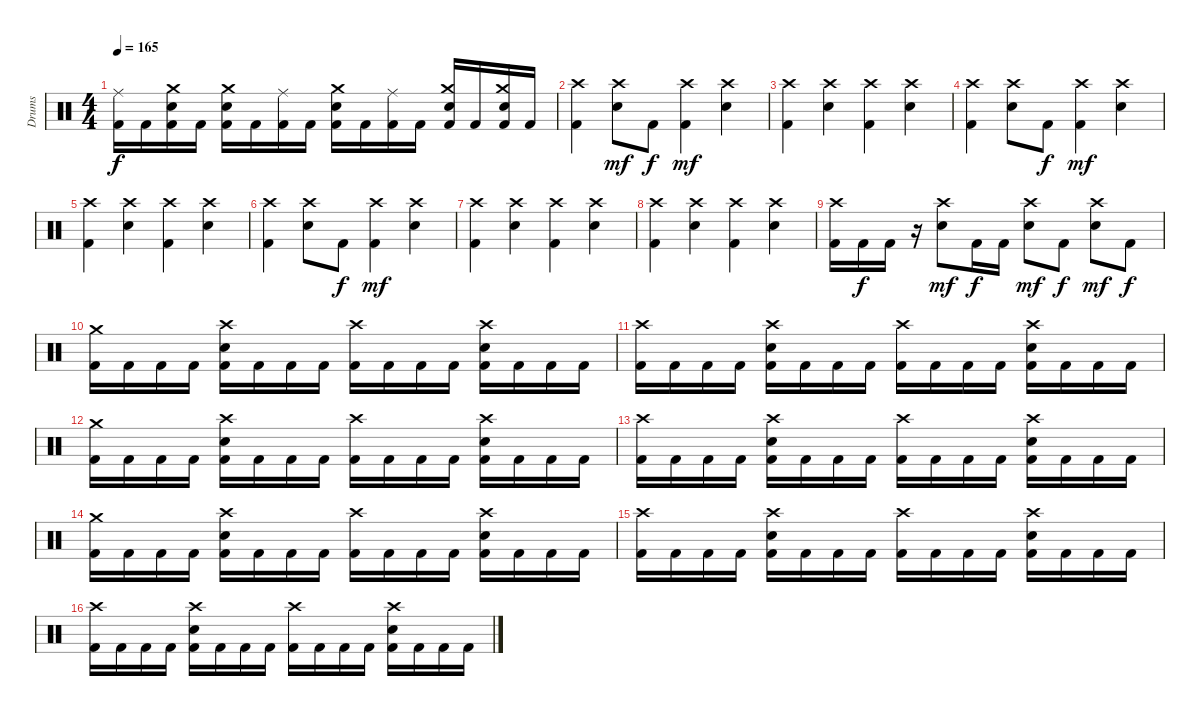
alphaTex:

\track ("Drums" "Drums") {instrument percussion}
\staff {score}
\articulation defaults
\ts (4 4)
\tempo 165
\clef neutral
\ks c
("Ride (middle)" "Kick (hit) 2").16{dy f} "Kick (hit) 2".16 ("Crash medium (hit)" "Electric Snare (hit)" "Kick (hit) 2").16 "Kick (hit) 2".16 ("Crash medium (hit)" "Electric Snare (hit)" "Kick (hit) 2").16 "Kick (hit) 2".16 ("Ride (middle)" "Kick (hit) 2").16 "Kick (hit) 2".16 ("Crash medium (hit)" "Electric Snare (hit)" "Kick (hit) 2").16 "Kick (hit) 2".16 ("Ride (middle)" "Kick (hit) 2").16 "Kick (hit) 2".16 ("Crash medium (hit)" "Electric Snare (hit)" "Kick (hit) 2").16 "Kick (hit) 2".16 ("Crash medium (hit)" "Electric Snare (hit)" "Kick (hit) 2").16 "Kick (hit) 2".16 |
("Crash high (hit)" "Kick (hit) 2").4 ("Crash high (hit)" "Electric Snare (hit)").8{dy mf} "Kick (hit) 2".8{dy f} ("Crash high (hit)" "Kick (hit) 2").4{dy mf} ("Crash high (hit)" "Electric Snare (hit)").4 |
("Crash high (hit)" "Kick (hit) 2").4 ("Crash high (hit)" "Electric Snare (hit)").4 ("Crash high (hit)" "Kick (hit) 2").4 ("Crash high (hit)" "Electric Snare (hit)").4 |
("Crash high (hit)" "Kick (hit) 2").4 ("Crash high (hit)" "Electric Snare (hit)").8 "Kick (hit) 2".8{dy f} ("Crash high (hit)" "Kick (hit) 2").4{dy mf} ("Crash high (hit)" "Electric Snare (hit)").4 |
("Crash high (hit)" "Kick (hit) 2").4 ("Crash high (hit)" "Electric Snare (hit)").4 ("Crash high (hit)" "Kick (hit) 2").4 ("Crash high (hit)" "Electric Snare (hit)").4 |
("Crash high (hit)" "Kick (hit) 2").4 ("Crash high (hit)" "Electric Snare (hit)").8 "Kick (hit) 2".8{dy f} ("Crash high (hit)" "Kick (hit) 2").4{dy mf} ("Crash high (hit)" "Electric Snare (hit)").4 |
("Crash high (hit)" "Kick (hit) 2").4 ("Crash high (hit)" "Electric Snare (hit)").4 ("Crash high (hit)" "Kick (hit) 2").4 ("Crash high (hit)" "Electric Snare (hit)").4 |
("Crash high (hit)" "Kick (hit) 2").4 ("Crash high (hit)" "Electric Snare (hit)").4 ("Crash high (hit)" "Kick (hit) 2").4 ("Crash high (hit)" "Electric Snare (hit)").4 |
("Crash high (hit)" "Kick (hit) 2").16 "Kick (hit) 2".16{dy f} "Kick (hit) 2".16 r.16 ("Crash high (hit)" "Electric Snare (hit)").8{dy mf} "Kick (hit) 2".16{dy f} "Kick (hit) 2".16 ("Crash high (hit)" "Electric Snare (hit)").8{dy mf} "Kick (hit) 2".8{dy f} ("Crash high (hit)" "Electric Snare (hit)").8{dy mf} "Kick (hit) 2".8{dy f} |
("Crash medium (hit)" "Kick (hit) 2").16 "Kick (hit) 2".16 "Kick (hit) 2".16 "Kick (hit) 2".16 ("Crash high (hit)" "Electric Snare (hit)" "Kick (hit) 2").16 "Kick (hit) 2".16 "Kick (hit) 2".16 "Kick (hit) 2".16 ("Crash high (hit)" "Kick (hit) 2").16 "Kick (hit) 2".16 "Kick (hit) 2".16 "Kick (hit) 2".16 ("Crash high (hit)" "Electric Snare (hit)" "Kick (hit) 2").16 "Kick (hit) 2".16 "Kick (hit) 2".16 "Kick (hit) 2".16 |
("Crash high (hit)" "Kick (hit) 2").16 "Kick (hit) 2".16 "Kick (hit) 2".16 "Kick (hit) 2".16 ("Crash high (hit)" "Electric Snare (hit)" "Kick (hit) 2").16 "Kick (hit) 2".16 "Kick (hit) 2".16 "Kick (hit) 2".16 ("Crash high (hit)" "Kick (hit) 2").16 "Kick (hit) 2".16 "Kick (hit) 2".16 "Kick (hit) 2".16 ("Crash high (hit)" "Electric Snare (hit)" "Kick (hit) 2").16 "Kick (hit) 2".16 "Kick (hit) 2".16 "Kick (hit) 2".16 |
("Crash medium (hit)" "Kick (hit) 2").16 "Kick (hit) 2".16 "Kick (hit) 2".16 "Kick (hit) 2".16 ("Crash high (hit)" "Electric Snare (hit)" "Kick (hit) 2").16 "Kick (hit) 2".16 "Kick (hit) 2".16 "Kick (hit) 2".16 ("Crash high (hit)" "Kick (hit) 2").16 "Kick (hit) 2".16 "Kick (hit) 2".16 "Kick (hit) 2".16 ("Crash high (hit)" "Electric Snare (hit)" "Kick (hit) 2").16 "Kick (hit) 2".16 "Kick (hit) 2".16 "Kick (hit) 2".16 |
("Crash high (hit)" "Kick (hit) 2").16 "Kick (hit) 2".16 "Kick (hit) 2".16 "Kick (hit) 2".16 ("Crash high (hit)" "Electric Snare (hit)" "Kick (hit) 2").16 "Kick (hit) 2".16 "Kick (hit) 2".16 "Kick (hit) 2".16 ("Crash high (hit)" "Kick (hit) 2").16 "Kick (hit) 2".16 "Kick (hit) 2".16 "Kick (hit) 2".16 ("Crash high (hit)" "Electric Snare (hit)" "Kick (hit) 2").16 "Kick (hit) 2".16 "Kick (hit) 2".16 "Kick (hit) 2".16 |
("Crash medium (hit)" "Kick (hit) 2").16 "Kick (hit) 2".16 "Kick (hit) 2".16 "Kick (hit) 2".16 ("Crash high (hit)" "Electric Snare (hit)" "Kick (hit) 2").16 "Kick (hit) 2".16 "Kick (hit) 2".16 "Kick (hit) 2".16 ("Crash high (hit)" "Kick (hit) 2").16 "Kick (hit) 2".16 "Kick (hit) 2".16 "Kick (hit) 2".16 ("Crash high (hit)" "Electric Snare (hit)" "Kick (hit) 2").16 "Kick (hit) 2".16 "Kick (hit) 2".16 "Kick (hit) 2".16 |
("Crash high (hit)" "Kick (hit) 2").16 "Kick (hit) 2".16 "Kick (hit) 2".16 "Kick (hit) 2".16 ("Crash high (hit)" "Electric Snare (hit)" "Kick (hit) 2").16 "Kick (hit) 2".16 "Kick (hit) 2".16 "Kick (hit) 2".16 ("Crash high (hit)" "Kick (hit) 2").16 "Kick (hit) 2".16 "Kick (hit) 2".16 "Kick (hit) 2".16 ("Crash high (hit)" "Electric Snare (hit)" "Kick (hit) 2").16 "Kick (hit) 2".16 "Kick (hit) 2".16 "Kick (hit) 2".16 |
("Crash high (hit)" "Kick (hit) 2").16 "Kick (hit) 2".16 "Kick (hit) 2".16 "Kick (hit) 2".16 ("Crash high (hit)" "Electric Snare (hit)" "Kick (hit) 2").16 "Kick (hit) 2".16 "Kick (hit) 2".16 "Kick (hit) 2".16 ("Crash high (hit)" "Kick (hit) 2").16 "Kick (hit) 2".16 "Kick (hit) 2".16 "Kick (hit) 2".16 ("Crash high (hit)" "Electric Snare (hit)" "Kick (hit) 2").16 "Kick (hit) 2".16 "Kick (hit) 2".16 "Kick (hit) 2".16
